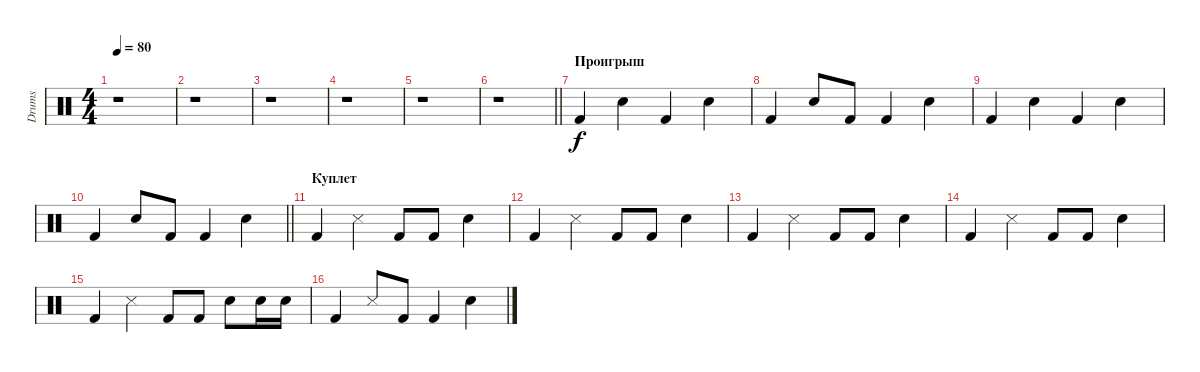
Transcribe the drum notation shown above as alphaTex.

\track ("Drums" "Drums") {instrument percussion}
\staff
\articulation defaults
\ts (4 4)
\tempo 80
\clef neutral
\ks c
r.1{dy f} |
r.1 |
r.1 |
r.1 |
r.1 |
\barLineRight lightlight
r.1 |
\section ("" "Проигрыш")
"Kick (hit) 2".4 "Snare (hit) 2".4 "Kick (hit) 2".4 "Snare (hit) 2".4 |
"Kick (hit) 2".4 "Snare (hit) 2".8 "Kick (hit) 2".8 "Kick (hit) 2".4 "Snare (hit) 2".4 |
"Kick (hit) 2".4 "Snare (hit) 2".4 "Kick (hit) 2".4 "Snare (hit) 2".4 |
\barLineRight lightlight "Kick (hit) 2".4 "Snare (hit) 2".8 "Kick (hit) 2".8 "Kick (hit) 2".4 "Snare (hit) 2".4
|
\section ("" "Куплет")
"Kick (hit) 2".4 "Snare (side stick) 3".4 "Kick (hit) 2".8 "Kick (hit) 2".8 "Snare (hit) 2".4 |
"Kick (hit) 2".4 "Snare (side stick) 3".4 "Kick (hit) 2".8 "Kick (hit) 2".8 "Snare (hit) 2".4 |
"Kick (hit) 2".4 "Snare (side stick) 3".4 "Kick (hit) 2".8 "Kick (hit) 2".8 "Snare (hit) 2".4 |
"Kick (hit) 2".4 "Snare (side stick) 3".4 "Kick (hit) 2".8 "Kick (hit) 2".8 "Snare (hit) 2".4 |
"Kick (hit) 2".4 "Snare (side stick) 3".4 "Kick (hit) 2".8 "Kick (hit) 2".8 "Snare (hit) 2".8 "Snare (hit) 2".16 "Snare (hit) 2".16 |
"Kick (hit) 2".4 "Snare (side stick) 3".8 "Kick (hit) 2".8 "Kick (hit) 2".4 "Snare (hit) 2".4
